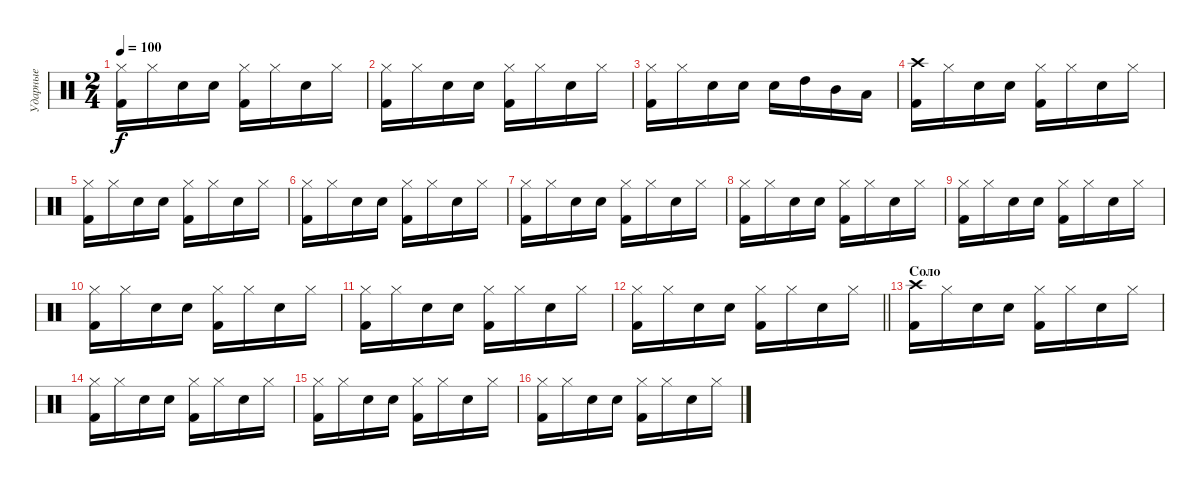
\track ("Ударные" "Ударные") {instrument percussion}
\staff {score}
\articulation defaults
\ts (2 4)
\tempo 100
\clef neutral
\ks c
("Hi-Hat (closed)" "Kick (hit) 2").16{dy f} "Hi-Hat (closed)".16 "Electric Snare (hit)".16 "Electric Snare (hit)".16 ("Kick (hit) 2" "Hi-Hat (closed)").16 "Hi-Hat (closed)".16 "Electric Snare (hit)".16 "Hi-Hat (closed)".16 |
("Hi-Hat (closed)" "Kick (hit) 2").16 "Hi-Hat (closed)".16 "Electric Snare (hit)".16 "Electric Snare (hit)".16 ("Kick (hit) 2" "Hi-Hat (closed)").16 "Hi-Hat (closed)".16 "Electric Snare (hit)".16 "Hi-Hat (closed)".16 |
("Hi-Hat (closed)" "Kick (hit) 2").16 "Hi-Hat (closed)".16 "Electric Snare (hit)".16 "Electric Snare (hit)".16 "Electric Snare (hit)".16 "High Tom (hit)".16 "Mid Tom (hit)".16 "Low Tom (hit)".16 |
("Crash high (hit)" "Kick (hit) 2").16 "Hi-Hat (closed)".16 "Electric Snare (hit)".16 "Electric Snare (hit)".16 ("Kick (hit) 2" "Hi-Hat (closed)").16 "Hi-Hat (closed)".16 "Electric Snare (hit)".16 "Hi-Hat (closed)".16 |
("Hi-Hat (closed)" "Kick (hit) 2").16 "Hi-Hat (closed)".16 "Electric Snare (hit)".16 "Electric Snare (hit)".16 ("Kick (hit) 2" "Hi-Hat (closed)").16 "Hi-Hat (closed)".16 "Electric Snare (hit)".16 "Hi-Hat (closed)".16 |
("Hi-Hat (closed)" "Kick (hit) 2").16 "Hi-Hat (closed)".16 "Electric Snare (hit)".16 "Electric Snare (hit)".16 ("Kick (hit) 2" "Hi-Hat (closed)").16 "Hi-Hat (closed)".16 "Electric Snare (hit)".16 "Hi-Hat (closed)".16 |
("Hi-Hat (closed)" "Kick (hit) 2").16 "Hi-Hat (closed)".16 "Electric Snare (hit)".16 "Electric Snare (hit)".16 ("Kick (hit) 2" "Hi-Hat (closed)").16 "Hi-Hat (closed)".16 "Electric Snare (hit)".16 "Hi-Hat (closed)".16 |
("Hi-Hat (closed)" "Kick (hit) 2").16 "Hi-Hat (closed)".16 "Electric Snare (hit)".16 "Electric Snare (hit)".16 ("Kick (hit) 2" "Hi-Hat (closed)").16 "Hi-Hat (closed)".16 "Electric Snare (hit)".16 "Hi-Hat (closed)".16 |
("Hi-Hat (closed)" "Kick (hit) 2").16 "Hi-Hat (closed)".16 "Electric Snare (hit)".16 "Electric Snare (hit)".16 ("Kick (hit) 2" "Hi-Hat (closed)").16 "Hi-Hat (closed)".16 "Electric Snare (hit)".16 "Hi-Hat (closed)".16 |
("Hi-Hat (closed)" "Kick (hit) 2").16 "Hi-Hat (closed)".16 "Electric Snare (hit)".16 "Electric Snare (hit)".16 ("Kick (hit) 2" "Hi-Hat (closed)").16 "Hi-Hat (closed)".16 "Electric Snare (hit)".16 "Hi-Hat (closed)".16 |
("Hi-Hat (closed)" "Kick (hit) 2").16 "Hi-Hat (closed)".16 "Electric Snare (hit)".16 "Electric Snare (hit)".16 ("Kick (hit) 2" "Hi-Hat (closed)").16 "Hi-Hat (closed)".16 "Electric Snare (hit)".16 "Hi-Hat (closed)".16 |
\barLineRight lightlight
("Hi-Hat (closed)" "Kick (hit) 2").16 "Hi-Hat (closed)".16 "Electric Snare (hit)".16 "Electric Snare (hit)".16 ("Kick (hit) 2" "Hi-Hat (closed)").16 "Hi-Hat (closed)".16 "Electric Snare (hit)".16 "Hi-Hat (closed)".16 |
\section ("" "Соло")
("Crash high (hit)" "Kick (hit) 2").16 "Hi-Hat (closed)".16 "Electric Snare (hit)".16 "Electric Snare (hit)".16 ("Kick (hit) 2" "Hi-Hat (closed)").16 "Hi-Hat (closed)".16 "Electric Snare (hit)".16 "Hi-Hat (closed)".16 |
("Hi-Hat (closed)" "Kick (hit) 2").16 "Hi-Hat (closed)".16 "Electric Snare (hit)".16 "Electric Snare (hit)".16 ("Kick (hit) 2" "Hi-Hat (closed)").16 "Hi-Hat (closed)".16 "Electric Snare (hit)".16 "Hi-Hat (closed)".16 |
("Hi-Hat (closed)" "Kick (hit) 2").16 "Hi-Hat (closed)".16 "Electric Snare (hit)".16 "Electric Snare (hit)".16 ("Kick (hit) 2" "Hi-Hat (closed)").16 "Hi-Hat (closed)".16 "Electric Snare (hit)".16 "Hi-Hat (closed)".16 |
("Hi-Hat (closed)" "Kick (hit) 2").16 "Hi-Hat (closed)".16 "Electric Snare (hit)".16 "Electric Snare (hit)".16 ("Kick (hit) 2" "Hi-Hat (closed)").16 "Hi-Hat (closed)".16 "Electric Snare (hit)".16 "Hi-Hat (closed)".16
